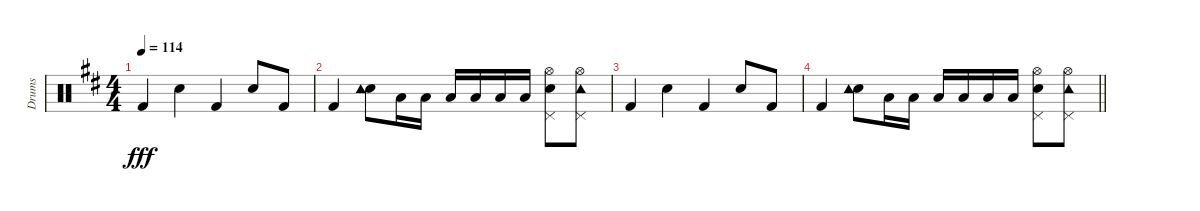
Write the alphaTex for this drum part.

\track ("Drums" "Drums") {instrument percussion}
\staff {score}
\articulation defaults
\ts (4 4)
\tempo 114
\clef neutral
\ks d "Kick (hit) 2".4{dy fff} "Snare (hit) 2".4 "Kick (hit) 2".4 "Snare (hit) 2".8 "Kick (hit) 2".8
|
"Kick (hit) 2".4 ("Snare (hit) 2" "Tambourine (hit)").8 "Low Tom (hit)".16 "Low Tom (hit)".16 "Low Tom (hit)".16 "Low Tom (hit)".16 "Low Tom (hit)".16 "Low Tom (hit)".16 ("Snare (hit) 2" "Pedal Hi-Hat (hit)" "Hi-Hat (open)").8 ("Hi-Hat (open)" "Pedal Hi-Hat (hit)" "Tambourine (hit)").8 |
"Kick (hit) 2".4 "Snare (hit) 2".4 "Kick (hit) 2".4 "Snare (hit) 2".8 "Kick (hit) 2".8 |
\barLineRight lightlight "Kick (hit) 2".4
("Snare (hit) 2" "Tambourine (hit)").8 "Low Tom (hit)".16 "Low Tom (hit)".16 "Low Tom (hit)".16 "Low Tom (hit)".16 "Low Tom (hit)".16 "Low Tom (hit)".16 ("Snare (hit) 2" "Pedal Hi-Hat (hit)" "Hi-Hat (open)").8 ("Hi-Hat (open)" "Pedal Hi-Hat (hit)" "Tambourine (hit)").8
